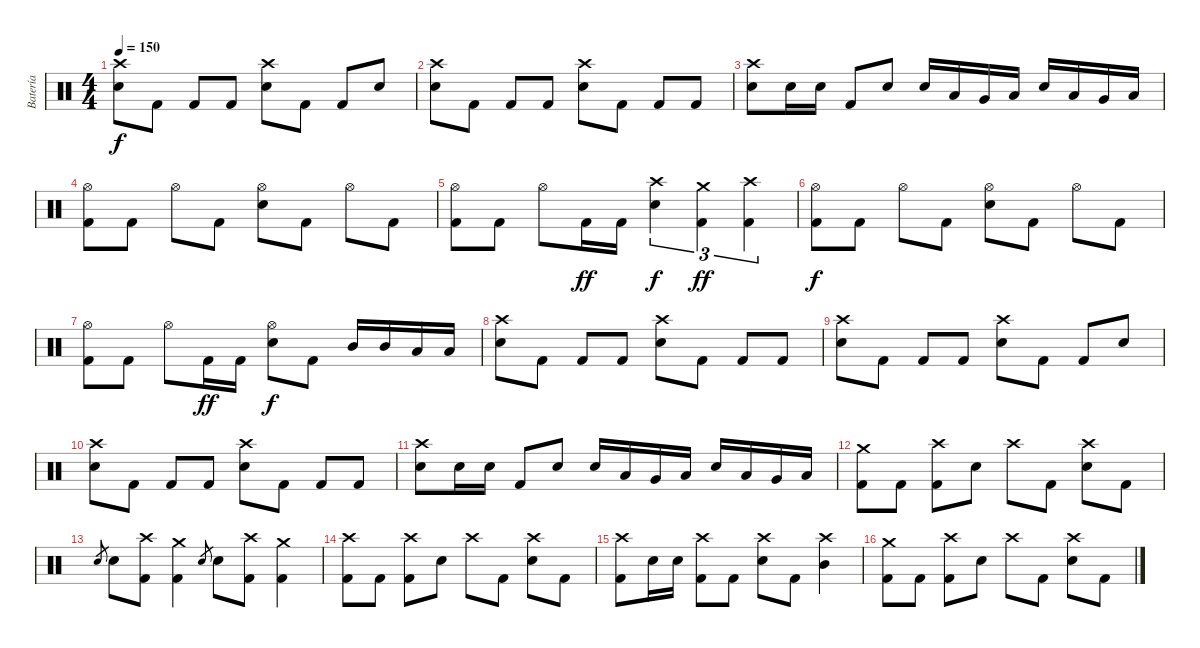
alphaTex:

\track ("Batería" "Batería") {instrument percussion}
\staff {score}
\articulation defaults
\ts (4 4)
\tempo 150
\clef neutral
\ks c
("Crash high (hit)" "Electric Snare (hit)").8{dy f} "Kick (hit) 2".8 "Kick (hit) 2".8 "Kick (hit) 2".8 ("Crash high (hit)" "Electric Snare (hit)").8 "Kick (hit) 2".8 "Kick (hit) 2".8 "Electric Snare (hit)".8 |
("Crash high (hit)" "Electric Snare (hit)").8 "Kick (hit) 2".8 "Kick (hit) 2".8 "Kick (hit) 2".8 ("Crash high (hit)" "Electric Snare (hit)").8 "Kick (hit) 2".8 "Kick (hit) 2".8 "Kick (hit) 2".8 |
("Crash high (hit)" "Electric Snare (hit)").8 "Electric Snare (hit)".16 "Electric Snare (hit)".16 "Kick (hit) 2".8 "Electric Snare (hit)".8 "Electric Snare (hit)".16 "Low Tom (hit)".16 "Very Low Tom (hit)".16 "Low Floor Tom (hit)".16 "Electric Snare (hit)".16 "Low Tom (hit)".16 "Very Low Tom (hit)".16 "Low Floor Tom (hit)".16 |
("Hi-Hat (open)" "Kick (hit) 2").8 "Kick (hit) 2".8 "Hi-Hat (open)".8 "Kick (hit) 2".8 ("Hi-Hat (open)" "Electric Snare (hit)").8 "Kick (hit) 2".8 "Hi-Hat (open)".8 "Kick (hit) 2".8 |
("Hi-Hat (open)" "Kick (hit) 2").8 "Kick (hit) 2".8 "Hi-Hat (open)".8 "Kick (hit) 2".16{dy ff} "Kick (hit) 2".16 ("Crash high (hit)" "Electric Snare (hit)").4{tu (3 2) dy f} ("Crash medium (hit)" "Kick (hit) 2").4{tu (3 2) dy ff} ("Crash high (hit)" "Kick (hit) 2").4{tu (3 2)} |
("Hi-Hat (open)" "Kick (hit) 2").8{dy f} "Kick (hit) 2".8 "Hi-Hat (open)".8 "Kick (hit) 2".8 ("Hi-Hat (open)" "Electric Snare (hit)").8 "Kick (hit) 2".8 "Hi-Hat (open)".8 "Kick (hit) 2".8 |
("Hi-Hat (open)" "Kick (hit) 2").8 "Kick (hit) 2".8 "Hi-Hat (open)".8 "Kick (hit) 2".16{dy ff} "Kick (hit) 2".16 ("Hi-Hat (open)" "Electric Snare (hit)").8{dy f} "Kick (hit) 2".8 "Mid Tom (hit)".16 "Mid Tom (hit)".16 "Low Tom (hit)".16 "Low Tom (hit)".16 |
("Crash high (hit)" "Electric Snare (hit)").8 "Kick (hit) 2".8 "Kick (hit) 2".8 "Kick (hit) 2".8 ("Crash high (hit)" "Electric Snare (hit)").8 "Kick (hit) 2".8 "Kick (hit) 2".8 "Kick (hit) 2".8 |
("Crash high (hit)" "Electric Snare (hit)").8 "Kick (hit) 2".8 "Kick (hit) 2".8 "Kick (hit) 2".8 ("Crash high (hit)" "Electric Snare (hit)").8 "Kick (hit) 2".8 "Kick (hit) 2".8 "Electric Snare (hit)".8 |
("Crash high (hit)" "Electric Snare (hit)").8 "Kick (hit) 2".8 "Kick (hit) 2".8 "Kick (hit) 2".8 ("Crash high (hit)" "Electric Snare (hit)").8 "Kick (hit) 2".8 "Kick (hit) 2".8 "Kick (hit) 2".8 |
("Crash high (hit)" "Electric Snare (hit)").8 "Electric Snare (hit)".16 "Electric Snare (hit)".16 "Kick (hit) 2".8 "Electric Snare (hit)".8 "Electric Snare (hit)".16 "Low Tom (hit)".16 "Very Low Tom (hit)".16 "Low Floor Tom (hit)".16 "Electric Snare (hit)".16 "Low Tom (hit)".16 "Very Low Tom (hit)".16 "Low Floor Tom (hit)".16 |
("Crash medium (hit)" "Kick (hit) 2").8 "Kick (hit) 2".8 ("Crash high (hit)" "Kick (hit) 2").8 "Electric Snare (hit)".8 "Crash high (hit)".8 "Kick (hit) 2".8 ("Crash high (hit)" "Electric Snare (hit)").8 "Kick (hit) 2".8 |
"Electric Snare (hit)".8{gr} "Electric Snare (hit)".8 ("Crash high (hit)" "Kick (hit) 2").8 ("Crash medium (hit)" "Kick (hit) 2").4 "Electric Snare (hit)".8{gr} "Electric Snare (hit)".8 ("Crash high (hit)" "Kick (hit) 2").8 ("Crash medium (hit)" "Kick (hit) 2").4 |
("Crash high (hit)" "Kick (hit) 2").8 "Kick (hit) 2".8 ("Crash high (hit)" "Kick (hit) 2").8 "Electric Snare (hit)".8 "Crash high (hit)".8 "Kick (hit) 2".8 ("Crash high (hit)" "Electric Snare (hit)").8 "Kick (hit) 2".8 |
("Crash high (hit)" "Kick (hit) 2").8 "Electric Snare (hit)".16 "Electric Snare (hit)".16 ("Crash high (hit)" "Kick (hit) 2").8 "Kick (hit) 2".8 ("Crash high (hit)" "Electric Snare (hit)").8 "Kick (hit) 2".8 ("Crash high (hit)" "Mid Tom (hit)").4 |
("Crash medium (hit)" "Kick (hit) 2").8 "Kick (hit) 2".8 ("Crash high (hit)" "Kick (hit) 2").8 "Electric Snare (hit)".8 "Crash high (hit)".8 "Kick (hit) 2".8 ("Crash high (hit)" "Electric Snare (hit)").8 "Kick (hit) 2".8
